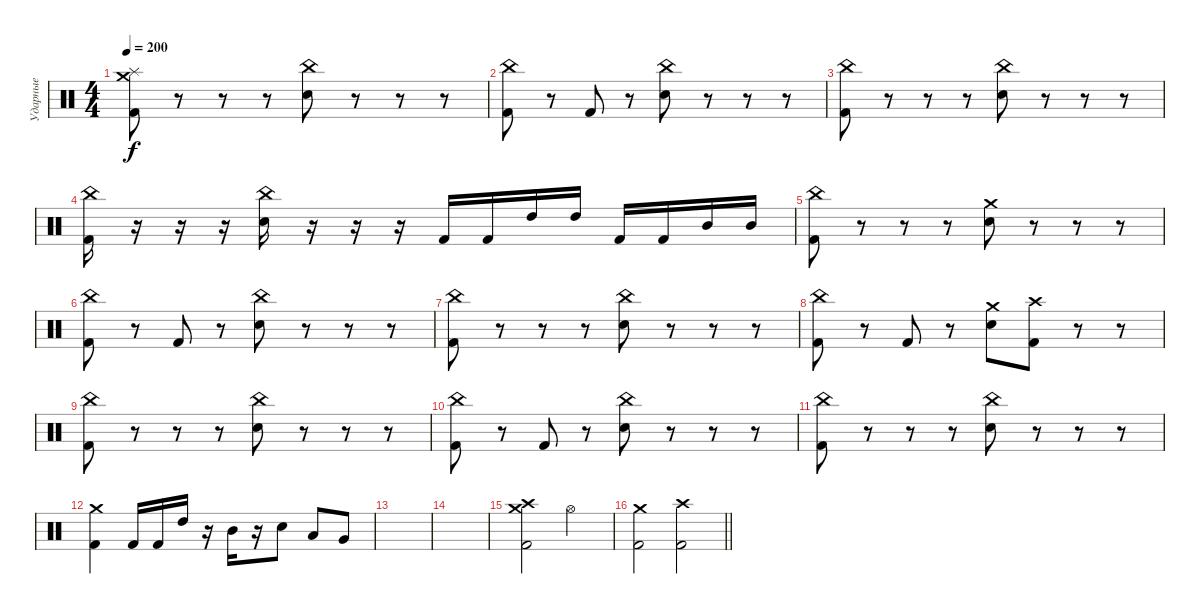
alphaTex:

\track ("Ударные" "Ударные") {instrument percussion}
\staff {score}
\articulation defaults
\ts (4 4)
\tempo 200
\clef neutral
\ks c
("Kick (hit) 2" "Crash medium (hit)" "Splash (hit)").8{dy f} r.8 r.8 r.8 ("Electric Snare (hit)" "China (hit)").8 r.8 r.8 r.8 |
("Kick (hit) 2" "China (hit)").8 r.8 "Kick (hit) 2".8 r.8 ("Electric Snare (hit)" "China (hit)").8 r.8 r.8 r.8 |
("Kick (hit) 2" "China (hit)").8 r.8 r.8 r.8 ("Electric Snare (hit)" "China (hit)").8 r.8 r.8 r.8 |
("Kick (hit) 2" "China (hit)").16 r.16 r.16 r.16 ("Electric Snare (hit)" "China (hit)").16 r.16 r.16 r.16 "Kick (hit) 2".16 "Kick (hit) 2".16 "High Tom (hit)".16 "High Tom (hit)".16 "Kick (hit) 2".16 "Kick (hit) 2".16 "Mid Tom (hit)".16 "Mid Tom (hit)".16 |
("Kick (hit) 2" "China (hit)").8 r.8 r.8 r.8 ("Electric Snare (hit)" "Crash medium (hit)").8 r.8 r.8 r.8 |
("Kick (hit) 2" "China (hit)").8 r.8 "Kick (hit) 2".8 r.8 ("Electric Snare (hit)" "China (hit)").8 r.8 r.8 r.8 |
("Kick (hit) 2" "China (hit)").8 r.8 r.8 r.8 ("Electric Snare (hit)" "China (hit)").8 r.8 r.8 r.8 |
("Kick (hit) 2" "China (hit)").8 r.8 "Kick (hit) 2".8 r.8 ("Electric Snare (hit)" "Crash medium (hit)").8 ("Kick (hit) 2" "Crash high (hit)").8 r.8 r.8 |
("Kick (hit) 2" "China (hit)").8 r.8 r.8 r.8 ("Electric Snare (hit)" "China (hit)").8 r.8 r.8 r.8 |
("Kick (hit) 2" "China (hit)").8 r.8 "Kick (hit) 2".8 r.8 ("Electric Snare (hit)" "China (hit)").8 r.8 r.8 r.8 |
("Kick (hit) 2" "China (hit)").8 r.8 r.8 r.8 ("Electric Snare (hit)" "China (hit)").8 r.8 r.8 r.8 |
("Kick (hit) 2" "Crash medium (hit)").4 "Kick (hit) 2".16 "Kick (hit) 2".16 "High Tom (hit)".16 r.16 "Mid Tom (hit)".16 r.16 "Electric Snare (hit)".8 "Low Tom (hit)".8 "Very Low Tom (hit)".8 |
|
|
("Kick (hit) 2" "Crash high (hit)" "Crash medium (hit)").2 "Hi-Hat (open)".2 |
\barLineRight lightlight
("Kick (hit) 2" "Crash medium (hit)").2 ("Kick (hit) 2" "Crash high (hit)").2
